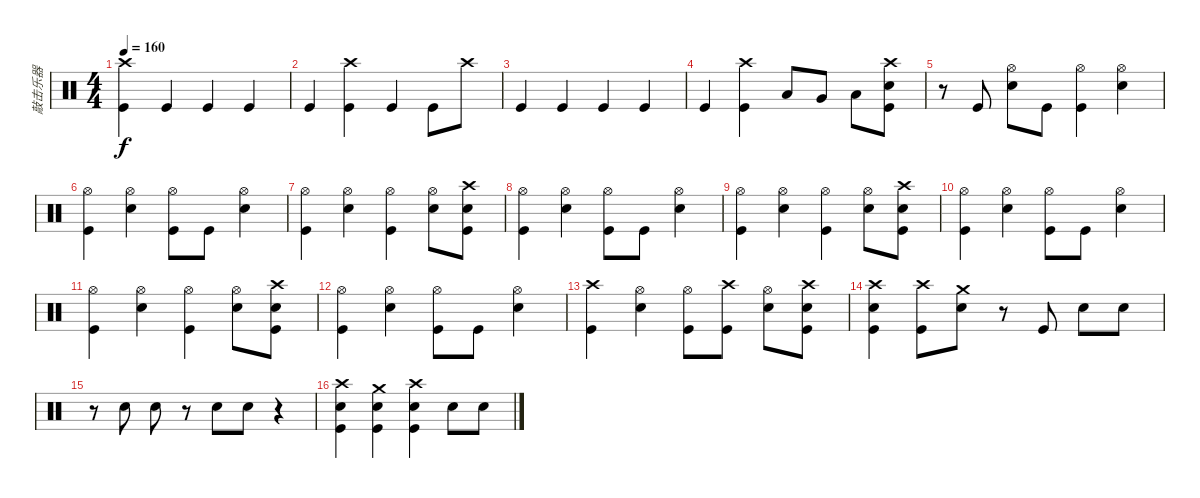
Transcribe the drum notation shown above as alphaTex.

\track ("敲击乐器" "敲击乐器") {instrument percussion}
\staff {score}
\articulation defaults
\ts (4 4)
\tempo 160
\clef neutral
\ks c
("Crash high (hit)" "Kick (hit)").4{dy f} "Kick (hit)".4 "Kick (hit)".4 "Kick (hit)".4 |
"Kick (hit)".4 ("Crash high (hit)" "Kick (hit)").4 "Kick (hit)".4 "Kick (hit)".8 "Crash high (hit)".8 |
"Kick (hit)".4 "Kick (hit)".4 "Kick (hit)".4 "Kick (hit)".4 |
"Kick (hit)".4 ("Crash high (hit)" "Kick (hit)").4 "Low Tom (hit)".8 "Very Low Tom (hit)".8 "Low Floor Tom (hit)".8 ("Crash high (hit)" "Electric Snare (hit)" "Kick (hit)").8 |
r.8 "Kick (hit)".8 ("Hi-Hat (open)" "Electric Snare (hit)").8 "Kick (hit)".8 ("Hi-Hat (open)" "Kick (hit)").4 ("Hi-Hat (open)" "Electric Snare (hit)").4 |
("Hi-Hat (open)" "Kick (hit)").4 ("Hi-Hat (open)" "Electric Snare (hit)").4 ("Hi-Hat (open)" "Kick (hit)").8 "Kick (hit)".8 ("Hi-Hat (open)" "Electric Snare (hit)").4 |
("Hi-Hat (open)" "Kick (hit)").4 ("Hi-Hat (open)" "Electric Snare (hit)").4 ("Hi-Hat (open)" "Kick (hit)").4 ("Hi-Hat (open)" "Electric Snare (hit)").8 ("Crash high (hit)" "Electric Snare (hit)" "Kick (hit)").8 |
("Hi-Hat (open)" "Kick (hit)").4 ("Hi-Hat (open)" "Electric Snare (hit)").4 ("Hi-Hat (open)" "Kick (hit)").8 "Kick (hit)".8 ("Hi-Hat (open)" "Electric Snare (hit)").4 |
("Hi-Hat (open)" "Kick (hit)").4 ("Hi-Hat (open)" "Electric Snare (hit)").4 ("Hi-Hat (open)" "Kick (hit)").4 ("Hi-Hat (open)" "Electric Snare (hit)").8 ("Crash high (hit)" "Electric Snare (hit)" "Kick (hit)").8 |
("Hi-Hat (open)" "Kick (hit)").4 ("Hi-Hat (open)" "Electric Snare (hit)").4 ("Hi-Hat (open)" "Kick (hit)").8 "Kick (hit)".8 ("Hi-Hat (open)" "Electric Snare (hit)").4 |
("Hi-Hat (open)" "Kick (hit)").4 ("Hi-Hat (open)" "Electric Snare (hit)").4 ("Hi-Hat (open)" "Kick (hit)").4 ("Hi-Hat (open)" "Electric Snare (hit)").8 ("Crash high (hit)" "Electric Snare (hit)" "Kick (hit)").8 |
("Hi-Hat (open)" "Kick (hit)").4 ("Hi-Hat (open)" "Electric Snare (hit)").4 ("Hi-Hat (open)" "Kick (hit)").8 "Kick (hit)".8 ("Hi-Hat (open)" "Electric Snare (hit)").4 |
("Crash high (hit)" "Kick (hit)").4 ("Hi-Hat (open)" "Electric Snare (hit)").4 ("Hi-Hat (open)" "Kick (hit)").8 ("Crash high (hit)" "Kick (hit)").8 ("Hi-Hat (open)" "Electric Snare (hit)").8 ("Crash high (hit)" "Electric Snare (hit)" "Kick (hit)").8 |
("Crash high (hit)" "Electric Snare (hit)" "Kick (hit)").4 ("Crash high (hit)" "Kick (hit)").8 ("Crash medium (hit)" "Electric Snare (hit)").8 r.8 "Kick (hit)".8 "Electric Snare (hit)".8 "Electric Snare (hit)".8 |
r.8 "Electric Snare (hit)".8 "Electric Snare (hit)".8 r.8 "Electric Snare (hit)".8 "Electric Snare (hit)".8 r.4 |
("Crash high (hit)" "Electric Snare (hit)" "Kick (hit)").4 ("Crash medium (hit)" "Electric Snare (hit)" "Kick (hit)").4 ("Crash high (hit)" "Electric Snare (hit)" "Kick (hit)").4 "Electric Snare (hit)".8 "Electric Snare (hit)".8
